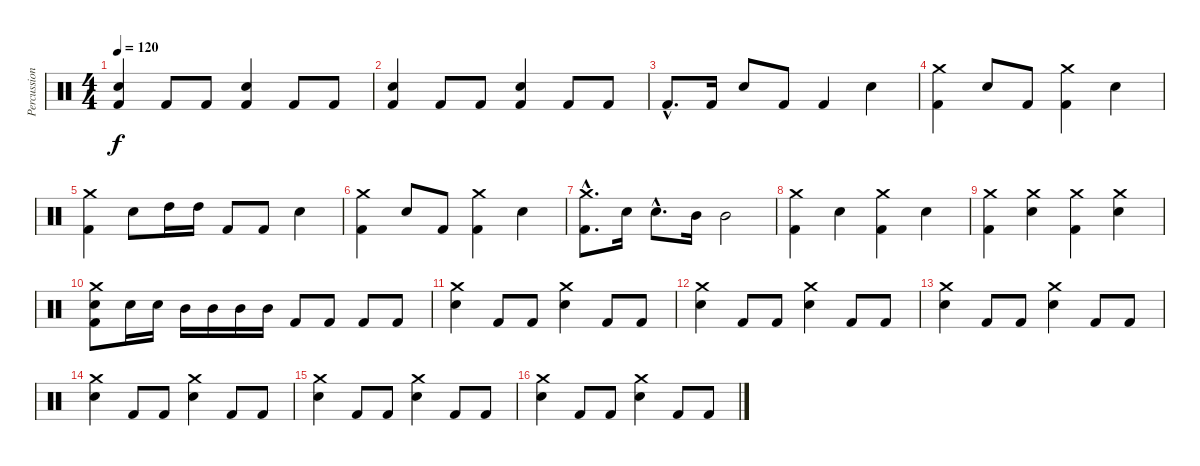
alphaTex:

\track ("Percussions" "Percussion") {instrument percussion}
\staff {score}
\articulation defaults
\ts (4 4)
\tempo 120
\clef neutral
\ks c
("Snare (hit) 2" "Kick (hit) 2").4{dy f} "Kick (hit) 2".8 "Kick (hit) 2".8 ("Snare (hit) 2" "Kick (hit) 2").4 "Kick (hit) 2".8 "Kick (hit) 2".8 |
("Snare (hit) 2" "Kick (hit) 2").4 "Kick (hit) 2".8 "Kick (hit) 2".8 ("Snare (hit) 2" "Kick (hit) 2").4 "Kick (hit) 2".8 "Kick (hit) 2".8 |
"Kick (hit) 2"{hac}.8{d} "Kick (hit) 2".16 "Snare (hit) 2".8 "Kick (hit) 2".8 "Kick (hit) 2".4 "Snare (hit) 2".4 |
("Crash medium (hit)" "Kick (hit) 2").4 "Snare (hit) 2".8 "Kick (hit) 2".8 ("Crash medium (hit)" "Kick (hit) 2").4 "Snare (hit) 2".4 |
("Crash medium (hit)" "Kick (hit) 2").4 "Snare (hit) 2".8 "High Tom (hit)".16 "High Tom (hit)".16 "Kick (hit) 2".8 "Kick (hit) 2".8 "Snare (hit) 2".4 |
("Crash medium (hit)" "Kick (hit) 2").4 "Snare (hit) 2".8 "Kick (hit) 2".8 ("Crash medium (hit)" "Kick (hit) 2").4 "Snare (hit) 2".4 |
("Crash medium (hit)"{hac} "Kick (hit) 2"{hac}).8{d} "Snare (hit) 2".16 "Snare (hit) 2"{hac}.8{d} "Mid Tom (hit)".16 "Mid Tom (hit)".2 |
("Crash medium (hit)" "Kick (hit) 2").4 "Snare (hit) 2".4 ("Crash medium (hit)" "Kick (hit) 2").4 "Snare (hit) 2".4 |
("Crash medium (hit)" "Kick (hit) 2").4 ("Crash medium (hit)" "Snare (hit) 2").4 ("Crash medium (hit)" "Kick (hit) 2").4 ("Crash medium (hit)" "Snare (hit) 2").4 |
("Crash medium (hit)" "Snare (hit) 2" "Kick (hit) 2").8 "Snare (hit) 2".16 "Snare (hit) 2".16 "Mid Tom (hit)".16 "Mid Tom (hit)".16 "Mid Tom (hit)".16 "Mid Tom (hit)".16 "Kick (hit) 2".8 "Kick (hit) 2".8 "Kick (hit) 2".8 "Kick (hit) 2".8 |
("Crash medium (hit)" "Snare (hit) 2").4 "Kick (hit) 2".8 "Kick (hit) 2".8 ("Crash medium (hit)" "Snare (hit) 2").4 "Kick (hit) 2".8 "Kick (hit) 2".8 |
("Crash medium (hit)" "Snare (hit) 2").4 "Kick (hit) 2".8 "Kick (hit) 2".8 ("Crash medium (hit)" "Snare (hit) 2").4 "Kick (hit) 2".8 "Kick (hit) 2".8 |
("Crash medium (hit)" "Snare (hit) 2").4 "Kick (hit) 2".8 "Kick (hit) 2".8 ("Crash medium (hit)" "Snare (hit) 2").4 "Kick (hit) 2".8 "Kick (hit) 2".8 |
("Crash medium (hit)" "Snare (hit) 2").4 "Kick (hit) 2".8 "Kick (hit) 2".8 ("Crash medium (hit)" "Snare (hit) 2").4 "Kick (hit) 2".8 "Kick (hit) 2".8 |
("Crash medium (hit)" "Snare (hit) 2").4 "Kick (hit) 2".8 "Kick (hit) 2".8 ("Crash medium (hit)" "Snare (hit) 2").4 "Kick (hit) 2".8 "Kick (hit) 2".8 |
("Crash medium (hit)" "Snare (hit) 2").4 "Kick (hit) 2".8 "Kick (hit) 2".8 ("Crash medium (hit)" "Snare (hit) 2").4 "Kick (hit) 2".8 "Kick (hit) 2".8
